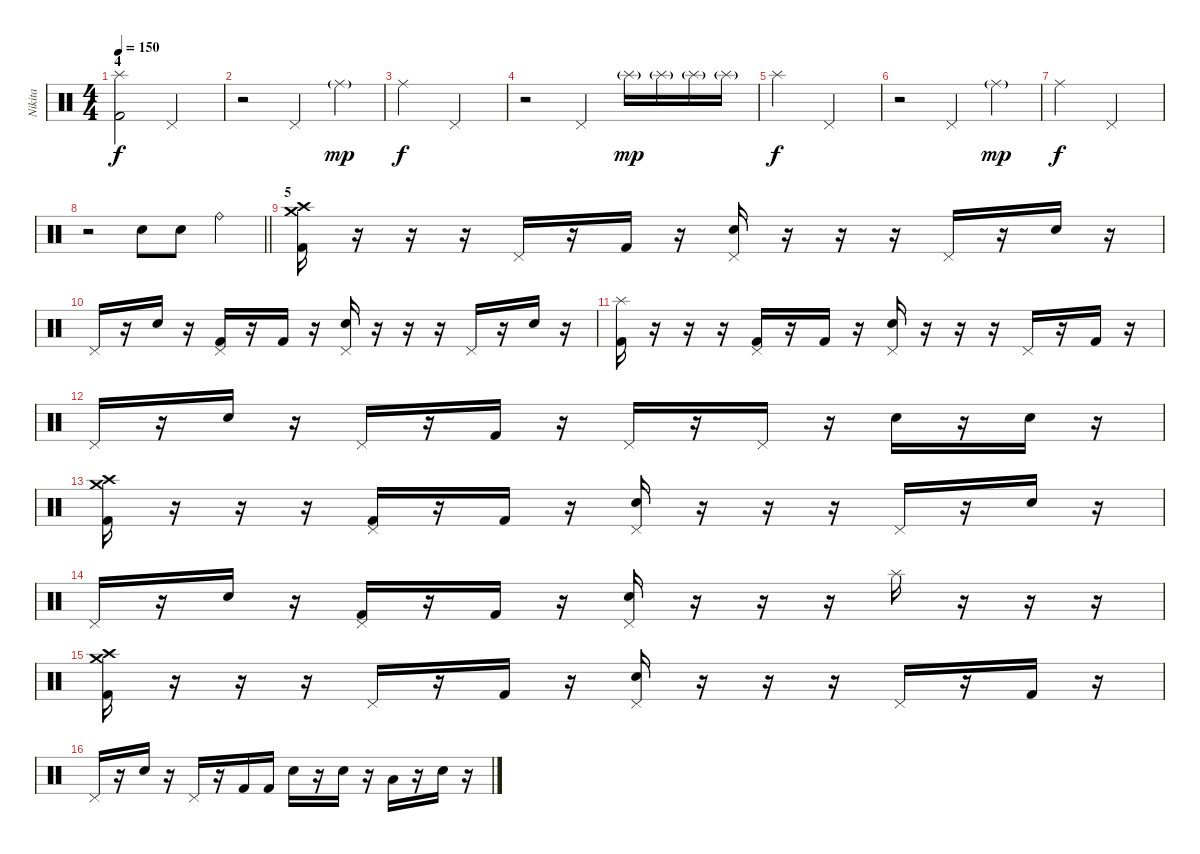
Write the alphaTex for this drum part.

\track ("Nikita" "Nikita") {instrument percussion}
\staff {score}
\articulation defaults
\ts (4 4)
\section ("" "4")
\tempo 150
\clef neutral
\ks c
("Splash (hit)" "Kick (hit) 2").2{dy f} "Pedal Hi-Hat (hit)".2 |
r.2 "Pedal Hi-Hat (hit)".4 "Ride (middle)"{g}.4{dy mp} |
"Ride (middle)".2{dy f} "Pedal Hi-Hat (hit)".2 |
r.2 "Pedal Hi-Hat (hit)".4 "Splash (hit)"{g}.16{dy mp} "Splash (hit)"{g}.16 "Splash (hit)"{g}.16 "Splash (hit)"{g}.16 |
"Splash (hit)".2{dy f} "Pedal Hi-Hat (hit)".2 |
r.2 "Pedal Hi-Hat (hit)".4 "Ride (middle)"{g}.4{dy mp} |
"Ride (middle)".2{dy f} "Pedal Hi-Hat (hit)".2 |
\barLineRight lightlight
r.2 "Electric Snare (hit)".8 "Electric Snare (hit)".8 "Ride (bell)".4 |
\section ("" "5")
("Crash high (hit)" "Crash medium (hit)" "Kick (hit) 2").16 r.16 r.16 r.16 "Pedal Hi-Hat (hit)".16 r.16 "Kick (hit) 2".16 r.16 ("Pedal Hi-Hat (hit)" "Electric Snare (hit)").16 r.16 r.16 r.16 "Pedal Hi-Hat (hit)".16 r.16 "Electric Snare (hit)".16 r.16 |
"Pedal Hi-Hat (hit)".16 r.16 "Electric Snare (hit)".16 r.16 ("Pedal Hi-Hat (hit)" "Kick (hit) 2").16 r.16 "Kick (hit) 2".16 r.16 ("Pedal Hi-Hat (hit)" "Electric Snare (hit)").16 r.16 r.16 r.16 "Pedal Hi-Hat (hit)".16 r.16 "Electric Snare (hit)".16 r.16 |
("Splash (hit)" "Kick (hit) 2").16 r.16 r.16 r.16 ("Pedal Hi-Hat (hit)" "Kick (hit) 2").16 r.16 "Kick (hit) 2".16 r.16 ("Pedal Hi-Hat (hit)" "Electric Snare (hit)").16 r.16 r.16 r.16 "Pedal Hi-Hat (hit)".16 r.16 "Kick (hit) 2".16 r.16 |
"Pedal Hi-Hat (hit)".16 r.16 "Electric Snare (hit)".16 r.16 "Pedal Hi-Hat (hit)".16 r.16 "Kick (hit) 2".16 r.16 "Pedal Hi-Hat (hit)".16 r.16 "Pedal Hi-Hat (hit)".16 r.16 "Electric Snare (hit)".16 r.16 "Electric Snare (hit)".16 r.16 |
("Crash high (hit)" "Crash medium (hit)" "Kick (hit) 2").16 r.16 r.16 r.16 ("Pedal Hi-Hat (hit)" "Kick (hit) 2").16 r.16 "Kick (hit) 2".16 r.16 ("Pedal Hi-Hat (hit)" "Electric Snare (hit)").16 r.16 r.16 r.16 "Pedal Hi-Hat (hit)".16 r.16 "Electric Snare (hit)".16 r.16 |
"Pedal Hi-Hat (hit)".16 r.16 "Electric Snare (hit)".16 r.16 ("Pedal Hi-Hat (hit)" "Kick (hit) 2").16 r.16 "Kick (hit) 2".16 r.16 ("Pedal Hi-Hat (hit)" "Electric Snare (hit)").16 r.16 r.16 r.16 "Splash (hit)".16 r.16 r.16 r.16 |
("Crash high (hit)" "Crash medium (hit)" "Kick (hit) 2").16 r.16 r.16 r.16 "Pedal Hi-Hat (hit)".16 r.16 "Kick (hit) 2".16 r.16 ("Pedal Hi-Hat (hit)" "Electric Snare (hit)").16 r.16 r.16 r.16 "Pedal Hi-Hat (hit)".16 r.16 "Kick (hit) 2".16 r.16 |
"Pedal Hi-Hat (hit)".16 r.16 "Electric Snare (hit)".16 r.16 "Pedal Hi-Hat (hit)".16 r.16 "Kick (hit) 2".16 "Kick (hit) 2".16 "Electric Snare (hit)".16 r.16 "Electric Snare (hit)".16 r.16 "Low Tom (hit)".16 r.16 "Electric Snare (hit)".16 r.16
